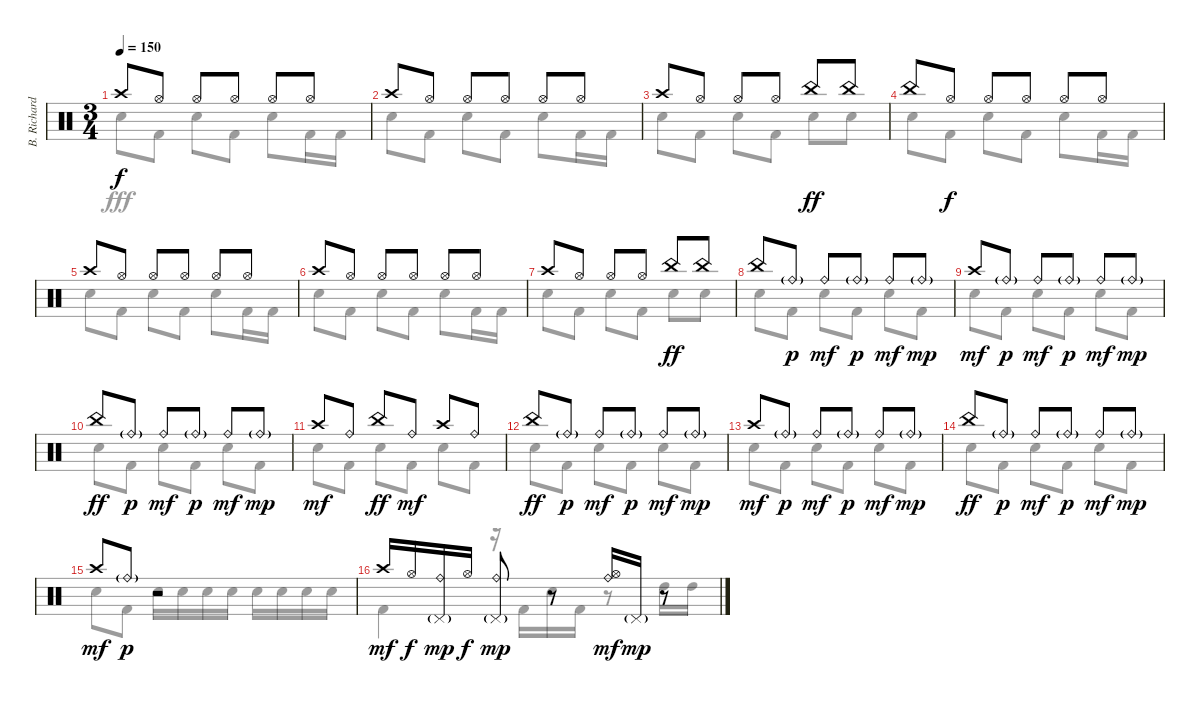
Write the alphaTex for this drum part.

\track ("B. Richardson Drums" "B. Richard") {instrument percussion}
\staff {score}
\articulation defaults
\voice
\ts (3 4)
\tempo 150
\clef neutral
\ks c "Crash high (hit)".8{dy f} "Hi-Hat (open)".8 "Hi-Hat (open)".8 "Hi-Hat (open)".8 "Hi-Hat (open)".8 "Hi-Hat (open)".8
|
"Crash high (hit)".8 "Hi-Hat (open)".8 "Hi-Hat (open)".8 "Hi-Hat (open)".8 "Hi-Hat (open)".8 "Hi-Hat (open)".8 |
"Crash high (hit)".8 "Hi-Hat (open)".8 "Hi-Hat (open)".8 "Hi-Hat (open)".8 "China (hit)".8{dy ff} "China (hit)".8 |
"China (hit)".8 "Hi-Hat (open)".8{dy f} "Hi-Hat (open)".8 "Hi-Hat (open)".8 "Hi-Hat (open)".8 "Hi-Hat (open)".8 |
"Crash high (hit)".8 "Hi-Hat (open)".8 "Hi-Hat (open)".8 "Hi-Hat (open)".8 "Hi-Hat (open)".8 "Hi-Hat (open)".8 |
"Crash high (hit)".8 "Hi-Hat (open)".8 "Hi-Hat (open)".8 "Hi-Hat (open)".8 "Hi-Hat (open)".8 "Hi-Hat (open)".8 |
"Crash high (hit)".8 "Hi-Hat (open)".8 "Hi-Hat (open)".8 "Hi-Hat (open)".8 "China (hit)".8{dy ff} "China (hit)".8 |
"China (hit)".8 "Ride (bell)"{g}.8{dy p} "Ride (bell)".8{dy mf} "Ride (bell)"{g}.8{dy p} "Ride (bell)".8{dy mf} "Ride (bell)"{g}.8{dy mp} |
"Crash high (hit)".8{dy mf} "Ride (bell)"{g}.8{dy p} "Ride (bell)".8{dy mf} "Ride (bell)"{g}.8{dy p} "Ride (bell)".8{dy mf} "Ride (bell)"{g}.8{dy mp} |
"China (hit)".8{dy ff} "Ride (bell)"{g}.8{dy p} "Ride (bell)".8{dy mf} "Ride (bell)"{g}.8{dy p} "Ride (bell)".8{dy mf} "Ride (bell)"{g}.8{dy mp} |
"Crash high (hit)".8{dy mf} "Ride (bell)".8 "China (hit)".8{dy ff} "Ride (bell)".8{dy mf} "Crash high (hit)".8 "Ride (bell)".8 |
"China (hit)".8{dy ff} "Ride (bell)"{g}.8{dy p} "Ride (bell)".8{dy mf} "Ride (bell)"{g}.8{dy p} "Ride (bell)".8{dy mf} "Ride (bell)"{g}.8{dy mp} |
"Crash high (hit)".8{dy mf} "Ride (bell)"{g}.8{dy p} "Ride (bell)".8{dy mf} "Ride (bell)"{g}.8{dy p} "Ride (bell)".8{dy mf} "Ride (bell)"{g}.8{dy mp} |
"China (hit)".8{dy ff} "Ride (bell)"{g}.8{dy p} "Ride (bell)".8{dy mf} "Ride (bell)"{g}.8{dy p} "Ride (bell)".8{dy mf} "Ride (bell)"{g}.8{dy mp} |
"Crash high (hit)".8{dy mf} "Ride (bell)"{g}.8{dy p} r.2 |
"Crash high (hit)".16{dy mf} "Hi-Hat (open)".16{dy f} ("Ride (bell)" "Pedal Hi-Hat (hit)"{g}).16{dy mp} "Hi-Hat (open)".16{dy f} ("Ride (bell)" "Pedal Hi-Hat (hit)"{g}).8{dy mp} r.8 ("Hi-Hat (open)" "Ride (bell)").16{dy mf} "Pedal Hi-Hat (hit)"{g}.16{dy mp} r.8
\voice
\clef neutral
\ottava regular
\simile none
\ks c "Electric Snare (hit)".8{dy fff} "Kick (hit) 2".8 "Electric Snare (hit)".8 "Kick (hit) 2".8 "Electric Snare (hit)".8 "Kick (hit) 2".16 "Kick (hit) 2".16
|
"Electric Snare (hit)".8 "Kick (hit) 2".8 "Electric Snare (hit)".8 "Kick (hit) 2".8 "Electric Snare (hit)".8 "Kick (hit) 2".16 "Kick (hit) 2".16 |
"Electric Snare (hit)".8 "Kick (hit) 2".8 "Electric Snare (hit)".8 "Kick (hit) 2".8 "Electric Snare (hit)".8 "Electric Snare (hit)".8 |
"Electric Snare (hit)".8 "Kick (hit) 2".8 "Electric Snare (hit)".8 "Kick (hit) 2".8 "Electric Snare (hit)".8 "Kick (hit) 2".16 "Kick (hit) 2".16 |
"Electric Snare (hit)".8 "Kick (hit) 2".8 "Electric Snare (hit)".8 "Kick (hit) 2".8 "Electric Snare (hit)".8 "Kick (hit) 2".16 "Kick (hit) 2".16 |
"Electric Snare (hit)".8 "Kick (hit) 2".8 "Electric Snare (hit)".8 "Kick (hit) 2".8 "Electric Snare (hit)".8 "Kick (hit) 2".16 "Kick (hit) 2".16 |
"Electric Snare (hit)".8 "Kick (hit) 2".8 "Electric Snare (hit)".8 "Kick (hit) 2".8 "Electric Snare (hit)".8 "Electric Snare (hit)".8 |
"Electric Snare (hit)".8 "Kick (hit) 2".8 "Electric Snare (hit)".8 "Kick (hit) 2".8 "Electric Snare (hit)".8 "Kick (hit) 2".8 |
"Electric Snare (hit)".8 "Kick (hit) 2".8 "Electric Snare (hit)".8 "Kick (hit) 2".8 "Electric Snare (hit)".8 "Kick (hit) 2".8 |
"Electric Snare (hit)".8 "Kick (hit) 2".8 "Electric Snare (hit)".8 "Kick (hit) 2".8 "Electric Snare (hit)".8 "Kick (hit) 2".8 |
"Electric Snare (hit)".8 "Kick (hit) 2".8 "Electric Snare (hit)".8 "Kick (hit) 2".8 "Electric Snare (hit)".8 "Kick (hit) 2".8 |
"Electric Snare (hit)".8 "Kick (hit) 2".8 "Electric Snare (hit)".8 "Kick (hit) 2".8 "Electric Snare (hit)".8 "Kick (hit) 2".8 |
"Electric Snare (hit)".8 "Kick (hit) 2".8 "Electric Snare (hit)".8 "Kick (hit) 2".8 "Electric Snare (hit)".8 "Kick (hit) 2".8 |
"Electric Snare (hit)".8 "Kick (hit) 2".8 "Electric Snare (hit)".8 "Kick (hit) 2".8 "Electric Snare (hit)".8 "Kick (hit) 2".8 |
"Electric Snare (hit)".8 "Kick (hit) 2".8 "Electric Snare (hit)".16 "Electric Snare (hit)".16 "Electric Snare (hit)".16 "Electric Snare (hit)".16 "Electric Snare (hit)".16 "Electric Snare (hit)".16 "Electric Snare (hit)".16 "Electric Snare (hit)".16 |
"Kick (hit) 2".4 r.16 "Kick (hit) 2".16 "Electric Snare (hit)".16 "Kick (hit) 2".16 r.8 "High Tom (hit)".16 "High Tom (hit)".16
